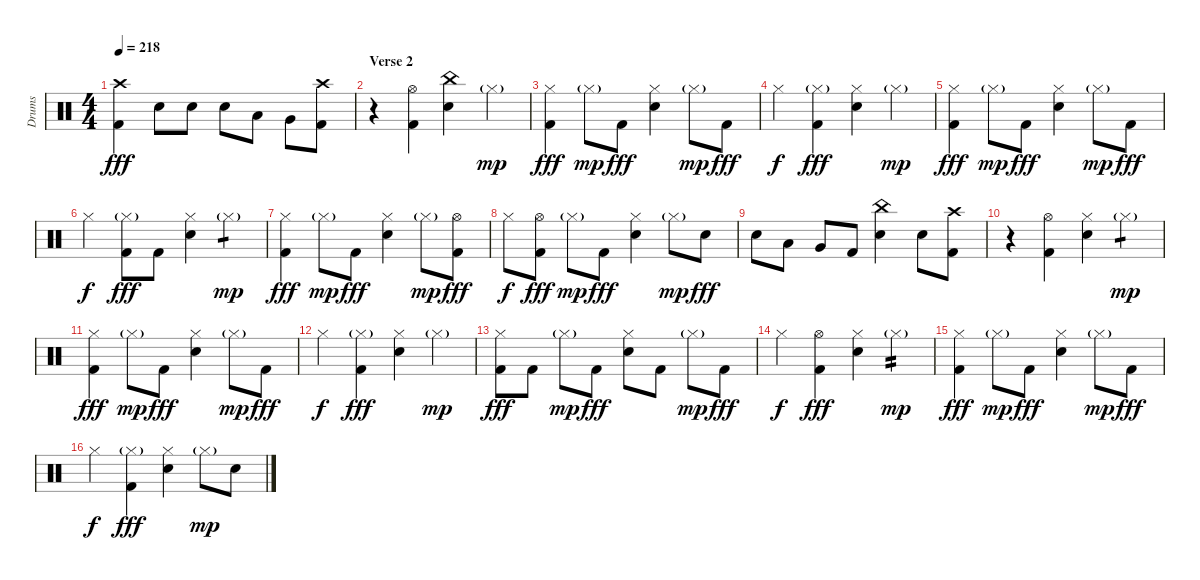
\track ("Drums" "Drums") {instrument percussion}
\staff {score}
\articulation defaults
\ts (4 4)
\tempo 218
\clef neutral
\ks c
("Crash high (hit)" "Kick (hit) 2").4{dy fff} "Electric Snare (hit)".8 "Electric Snare (hit)".8 "Electric Snare (hit)".8 "Low Tom (hit)".8 "Very Low Tom (hit)".8 ("Crash high (hit)" "Kick (hit) 2").8 |
\section ("" "Verse 2")
r.4 ("Hi-Hat (open)" "Kick (hit) 2").4 ("China (hit)" "Electric Snare (hit)").4 "Hi-Hat (closed)"{g}.4{dy mp} |
("Hi-Hat (closed)" "Kick (hit) 2").4{dy fff} "Hi-Hat (closed)"{g}.8{dy mp} "Kick (hit) 2".8{dy fff} ("Hi-Hat (closed)" "Electric Snare (hit)").4 "Hi-Hat (closed)"{g}.8{dy mp} "Kick (hit) 2".8{dy fff} |
"Hi-Hat (closed)".4{dy f} ("Hi-Hat (closed)"{g} "Kick (hit) 2").4{dy fff} ("Hi-Hat (closed)" "Electric Snare (hit)").4 "Hi-Hat (closed)"{g}.4{dy mp} |
("Hi-Hat (closed)" "Kick (hit) 2").4{dy fff} "Hi-Hat (closed)"{g}.8{dy mp} "Kick (hit) 2".8{dy fff} ("Hi-Hat (closed)" "Electric Snare (hit)").4 "Hi-Hat (closed)"{g}.8{dy mp} "Kick (hit) 2".8{dy fff} |
"Hi-Hat (closed)".4{dy f} ("Hi-Hat (closed)"{g} "Kick (hit) 2").8{dy fff} "Kick (hit) 2".8 ("Hi-Hat (closed)" "Electric Snare (hit)").4 "Hi-Hat (closed)"{g}.4{tp 1 dy mp} |
("Hi-Hat (closed)" "Kick (hit) 2").4{dy fff} "Hi-Hat (closed)"{g}.8{dy mp} "Kick (hit) 2".8{dy fff} ("Hi-Hat (closed)" "Electric Snare (hit)").4 "Hi-Hat (closed)"{g}.8{dy mp} ("Hi-Hat (open)" "Kick (hit) 2").8{dy fff} |
"Hi-Hat (closed)".8{dy f} ("Hi-Hat (open)" "Kick (hit) 2").8{dy fff} "Hi-Hat (closed)"{g}.8{dy mp} "Kick (hit) 2".8{dy fff} ("Hi-Hat (closed)" "Electric Snare (hit)").4 "Hi-Hat (closed)"{g}.8{dy mp} "Electric Snare (hit)".8{dy fff} |
"Electric Snare (hit)".8 "Low Tom (hit)".8 "Very Low Tom (hit)".8 "Kick (hit) 2".8 ("China (hit)" "Electric Snare (hit)").4 "Electric Snare (hit)".8 ("Crash high (hit)" "Kick (hit) 2").8 |
r.4 ("Hi-Hat (open)" "Kick (hit) 2").4 ("Hi-Hat (closed)" "Electric Snare (hit)").4 "Hi-Hat (closed)"{g}.4{tp 1 dy mp} |
("Hi-Hat (closed)" "Kick (hit) 2").4{dy fff} "Hi-Hat (closed)"{g}.8{dy mp} "Kick (hit) 2".8{dy fff} ("Hi-Hat (closed)" "Electric Snare (hit)").4 "Hi-Hat (closed)"{g}.8{dy mp} "Kick (hit) 2".8{dy fff} |
"Hi-Hat (closed)".4{dy f} ("Hi-Hat (closed)"{g} "Kick (hit) 2").4{dy fff} ("Hi-Hat (closed)" "Electric Snare (hit)").4 "Hi-Hat (closed)"{g}.4{dy mp} |
("Hi-Hat (closed)" "Kick (hit) 2").8{dy fff} "Kick (hit) 2".8 "Hi-Hat (closed)"{g}.8{dy mp} "Kick (hit) 2".8{dy fff} ("Hi-Hat (closed)" "Electric Snare (hit)").8 "Kick (hit) 2".8 "Hi-Hat (closed)"{g}.8{dy mp} "Kick (hit) 2".8{dy fff} |
"Hi-Hat (closed)".4{dy f} ("Hi-Hat (open)" "Kick (hit) 2").4{dy fff} ("Hi-Hat (closed)" "Electric Snare (hit)").4 "Hi-Hat (closed)"{g}.4{tp 2 dy mp} |
("Hi-Hat (closed)" "Kick (hit) 2").4{dy fff} "Hi-Hat (closed)"{g}.8{dy mp} "Kick (hit) 2".8{dy fff} ("Hi-Hat (closed)" "Electric Snare (hit)").4 "Hi-Hat (closed)"{g}.8{dy mp} "Kick (hit) 2".8{dy fff} |
"Hi-Hat (closed)".4{dy f} ("Hi-Hat (closed)"{g} "Kick (hit) 2").4{dy fff} ("Hi-Hat (closed)" "Electric Snare (hit)").4 "Hi-Hat (closed)"{g}.8{dy mp} "Electric Snare (hit)".8
